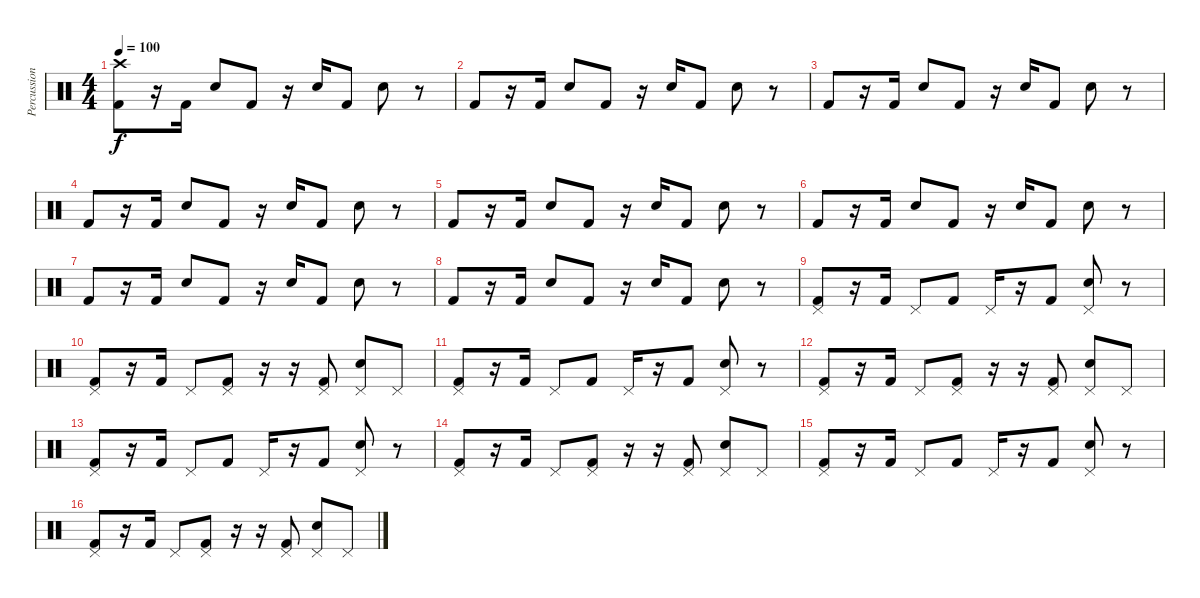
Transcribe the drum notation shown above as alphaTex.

\track ("Percussions" "Percussion") {instrument percussion}
\staff {score}
\articulation defaults
\ts (4 4)
\tempo 100
\clef neutral
\ks c
("Crash high (hit)" "Kick (hit) 2").8{dy f} r.16 "Kick (hit) 2".16 "Snare (hit) 2".8 "Kick (hit) 2".8 r.16 "Snare (hit) 2".16 "Kick (hit) 2".8 "Snare (hit) 2".8 r.8 |
"Kick (hit) 2".8 r.16 "Kick (hit) 2".16 "Snare (hit) 2".8 "Kick (hit) 2".8 r.16 "Snare (hit) 2".16 "Kick (hit) 2".8 "Snare (hit) 2".8 r.8 |
"Kick (hit) 2".8 r.16 "Kick (hit) 2".16 "Snare (hit) 2".8 "Kick (hit) 2".8 r.16 "Snare (hit) 2".16 "Kick (hit) 2".8 "Snare (hit) 2".8 r.8 |
"Kick (hit) 2".8 r.16 "Kick (hit) 2".16 "Snare (hit) 2".8 "Kick (hit) 2".8 r.16 "Snare (hit) 2".16 "Kick (hit) 2".8 "Snare (hit) 2".8 r.8 |
"Kick (hit) 2".8 r.16 "Kick (hit) 2".16 "Snare (hit) 2".8 "Kick (hit) 2".8 r.16 "Snare (hit) 2".16 "Kick (hit) 2".8 "Snare (hit) 2".8 r.8 |
"Kick (hit) 2".8 r.16 "Kick (hit) 2".16 "Snare (hit) 2".8 "Kick (hit) 2".8 r.16 "Snare (hit) 2".16 "Kick (hit) 2".8 "Snare (hit) 2".8 r.8 |
"Kick (hit) 2".8 r.16 "Kick (hit) 2".16 "Snare (hit) 2".8 "Kick (hit) 2".8 r.16 "Snare (hit) 2".16 "Kick (hit) 2".8 "Snare (hit) 2".8 r.8 |
"Kick (hit) 2".8 r.16 "Kick (hit) 2".16 "Snare (hit) 2".8 "Kick (hit) 2".8 r.16 "Snare (hit) 2".16 "Kick (hit) 2".8 "Snare (hit) 2".8 r.8 |
("Pedal Hi-Hat (hit)" "Kick (hit) 2").8{volume 7} r.16 "Kick (hit) 2".16 "Pedal Hi-Hat (hit)".8 "Kick (hit) 2".8 "Pedal Hi-Hat (hit)".16 r.16 "Kick (hit) 2".8 ("Pedal Hi-Hat (hit)" "Snare (hit) 2").8 r.8 |
("Pedal Hi-Hat (hit)" "Kick (hit) 2").8 r.16 "Kick (hit) 2".16 "Pedal Hi-Hat (hit)".8 ("Pedal Hi-Hat (hit)" "Kick (hit) 2").8 r.16 r.16 ("Pedal Hi-Hat (hit)" "Kick (hit) 2").8 ("Pedal Hi-Hat (hit)" "Snare (hit) 2").8 "Pedal Hi-Hat (hit)".8 |
("Pedal Hi-Hat (hit)" "Kick (hit) 2").8 r.16 "Kick (hit) 2".16 "Pedal Hi-Hat (hit)".8 "Kick (hit) 2".8 "Pedal Hi-Hat (hit)".16 r.16 "Kick (hit) 2".8 ("Pedal Hi-Hat (hit)" "Snare (hit) 2").8 r.8 |
("Pedal Hi-Hat (hit)" "Kick (hit) 2").8 r.16 "Kick (hit) 2".16 "Pedal Hi-Hat (hit)".8 ("Pedal Hi-Hat (hit)" "Kick (hit) 2").8 r.16 r.16 ("Pedal Hi-Hat (hit)" "Kick (hit) 2").8 ("Pedal Hi-Hat (hit)" "Snare (hit) 2").8 "Pedal Hi-Hat (hit)".8 |
("Pedal Hi-Hat (hit)" "Kick (hit) 2").8 r.16 "Kick (hit) 2".16 "Pedal Hi-Hat (hit)".8 "Kick (hit) 2".8 "Pedal Hi-Hat (hit)".16 r.16 "Kick (hit) 2".8 ("Pedal Hi-Hat (hit)" "Snare (hit) 2").8 r.8 |
("Pedal Hi-Hat (hit)" "Kick (hit) 2").8 r.16 "Kick (hit) 2".16 "Pedal Hi-Hat (hit)".8 ("Pedal Hi-Hat (hit)" "Kick (hit) 2").8 r.16 r.16 ("Pedal Hi-Hat (hit)" "Kick (hit) 2").8 ("Pedal Hi-Hat (hit)" "Snare (hit) 2").8 "Pedal Hi-Hat (hit)".8 |
("Pedal Hi-Hat (hit)" "Kick (hit) 2").8 r.16 "Kick (hit) 2".16 "Pedal Hi-Hat (hit)".8 "Kick (hit) 2".8 "Pedal Hi-Hat (hit)".16 r.16 "Kick (hit) 2".8 ("Pedal Hi-Hat (hit)" "Snare (hit) 2").8 r.8 |
("Pedal Hi-Hat (hit)" "Kick (hit) 2").8 r.16 "Kick (hit) 2".16 "Pedal Hi-Hat (hit)".8 ("Pedal Hi-Hat (hit)" "Kick (hit) 2").8 r.16 r.16 ("Pedal Hi-Hat (hit)" "Kick (hit) 2").8 ("Pedal Hi-Hat (hit)" "Snare (hit) 2").8 "Pedal Hi-Hat (hit)".8
